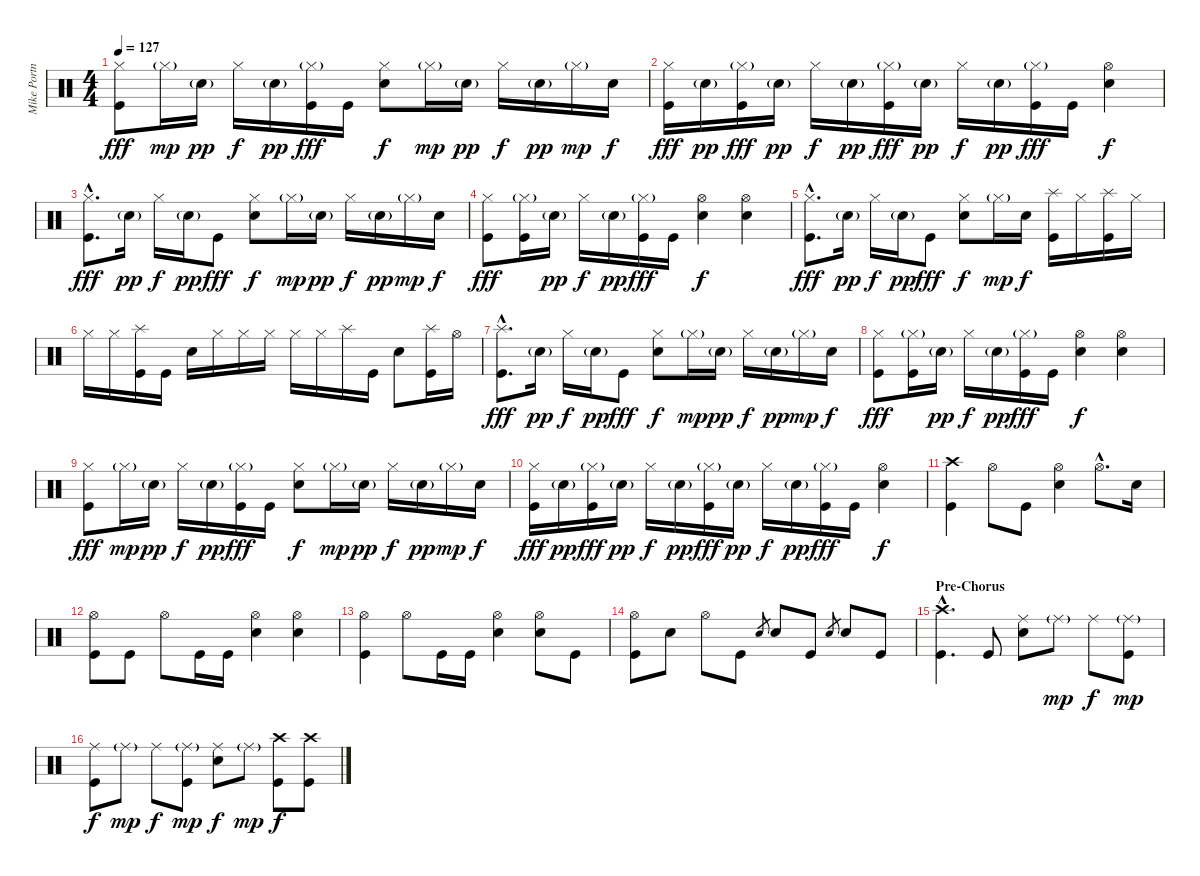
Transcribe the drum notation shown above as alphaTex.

\track ("Mike Portnoy" "Mike Portn") {instrument percussion}
\staff {score}
\articulation defaults
\ts (4 4)
\tempo 127
\clef neutral
\ks c
("Hi-Hat (closed)" "Kick (hit)").8{dy fff} "Hi-Hat (closed)"{g}.16{dy mp} "Electric Snare (hit)"{g}.16{dy pp} "Hi-Hat (closed)".16{dy f} "Electric Snare (hit)"{g}.16{dy pp} ("Hi-Hat (closed)"{g} "Kick (hit)").16{dy fff} "Kick (hit)".16 ("Hi-Hat (closed)" "Electric Snare (hit)").8{dy f} "Hi-Hat (closed)"{g}.16{dy mp} "Electric Snare (hit)"{g}.16{dy pp} "Hi-Hat (closed)".16{dy f} "Electric Snare (hit)"{g}.16{dy pp} "Hi-Hat (closed)"{g}.16{dy mp} "Electric Snare (hit)".16{dy f} |
("Hi-Hat (closed)" "Kick (hit)").16{dy fff} "Electric Snare (hit)"{g}.16{dy pp} ("Hi-Hat (closed)"{g} "Kick (hit)").16{dy fff} "Electric Snare (hit)"{g}.16{dy pp} "Hi-Hat (closed)".16{dy f} "Electric Snare (hit)"{g}.16{dy pp} ("Hi-Hat (closed)"{g} "Kick (hit)").16{dy fff} "Electric Snare (hit)"{g}.16{dy pp} "Hi-Hat (closed)".16{dy f} "Electric Snare (hit)"{g}.16{dy pp} ("Hi-Hat (closed)"{g} "Kick (hit)").16{dy fff} "Kick (hit)".16 ("Hi-Hat (open)" "Electric Snare (hit)").4{dy f} |
("Hi-Hat (closed)"{hac} "Kick (hit)"{hac}).8{d dy fff} "Electric Snare (hit)"{g}.16{dy pp} "Hi-Hat (closed)".16{dy f} "Electric Snare (hit)"{g}.16{dy pp} "Kick (hit)".8{dy fff} ("Hi-Hat (closed)" "Electric Snare (hit)").8{dy f} "Hi-Hat (closed)"{g}.16{dy mp} "Electric Snare (hit)"{g}.16{dy pp} "Hi-Hat (closed)".16{dy f} "Electric Snare (hit)"{g}.16{dy pp} "Hi-Hat (closed)"{g}.16{dy mp} "Electric Snare (hit)".16{dy f} |
("Hi-Hat (closed)" "Kick (hit)").8{dy fff} ("Hi-Hat (closed)"{g} "Kick (hit)").16 "Electric Snare (hit)"{g}.16{dy pp} "Hi-Hat (closed)".16{dy f} "Electric Snare (hit)"{g}.16{dy pp} ("Hi-Hat (closed)"{g} "Kick (hit)").16{dy fff} "Kick (hit)".16 ("Hi-Hat (open)" "Electric Snare (hit)").4{dy f} ("Hi-Hat (open)" "Electric Snare (hit)").4 |
("Hi-Hat (closed)"{hac} "Kick (hit)"{hac}).8{d dy fff} "Electric Snare (hit)"{g}.16{dy pp} "Hi-Hat (closed)".16{dy f} "Electric Snare (hit)"{g}.16{dy pp} "Kick (hit)".8{dy fff} ("Hi-Hat (closed)" "Electric Snare (hit)").8{dy f} "Hi-Hat (closed)"{g}.16{dy mp} "Electric Snare (hit)".16{dy f} ("Splash (hit)" "Kick (hit)").16 "Hi-Hat (closed)".16 ("Splash (hit)" "Kick (hit)").16 "Hi-Hat (closed)".16 |
"Hi-Hat (closed)".16 "Hi-Hat (closed)".16 ("Splash (hit)" "Kick (hit)").16 "Kick (hit)".16 "Electric Snare (hit)".16 "Hi-Hat (closed)".16 "Hi-Hat (closed)".16 "Hi-Hat (closed)".16 "Hi-Hat (closed)".16 "Hi-Hat (closed)".16 "Splash (hit)".16 "Kick (hit)".16 "Electric Snare (hit)".8 ("Splash (hit)" "Kick (hit)").16 "Hi-Hat (open)".16 |
("Splash (hit)"{hac} "Kick (hit)"{hac}).8{d dy fff} "Electric Snare (hit)"{g}.16{dy pp} "Hi-Hat (closed)".16{dy f} "Electric Snare (hit)"{g}.16{dy pp} "Kick (hit)".8{dy fff} ("Hi-Hat (closed)" "Electric Snare (hit)").8{dy f} "Hi-Hat (closed)"{g}.16{dy mp} "Electric Snare (hit)"{g}.16{dy pp} "Hi-Hat (closed)".16{dy f} "Electric Snare (hit)"{g}.16{dy pp} "Hi-Hat (closed)"{g}.16{dy mp} "Electric Snare (hit)".16{dy f} |
("Hi-Hat (closed)" "Kick (hit)").8{dy fff} ("Hi-Hat (closed)"{g} "Kick (hit)").16 "Electric Snare (hit)"{g}.16{dy pp} "Hi-Hat (closed)".16{dy f} "Electric Snare (hit)"{g}.16{dy pp} ("Hi-Hat (closed)"{g} "Kick (hit)").16{dy fff} "Kick (hit)".16 ("Hi-Hat (open)" "Electric Snare (hit)").4{dy f} ("Hi-Hat (open)" "Electric Snare (hit)").4 |
("Hi-Hat (closed)" "Kick (hit)").8{dy fff} "Hi-Hat (closed)"{g}.16{dy mp} "Electric Snare (hit)"{g}.16{dy pp} "Hi-Hat (closed)".16{dy f} "Electric Snare (hit)"{g}.16{dy pp} ("Hi-Hat (closed)"{g} "Kick (hit)").16{dy fff} "Kick (hit)".16 ("Hi-Hat (closed)" "Electric Snare (hit)").8{dy f} "Hi-Hat (closed)"{g}.16{dy mp} "Electric Snare (hit)"{g}.16{dy pp} "Hi-Hat (closed)".16{dy f} "Electric Snare (hit)"{g}.16{dy pp} "Hi-Hat (closed)"{g}.16{dy mp} "Electric Snare (hit)".16{dy f} |
("Hi-Hat (closed)" "Kick (hit)").16{dy fff} "Electric Snare (hit)"{g}.16{dy pp} ("Hi-Hat (closed)"{g} "Kick (hit)").16{dy fff} "Electric Snare (hit)"{g}.16{dy pp} "Hi-Hat (closed)".16{dy f} "Electric Snare (hit)"{g}.16{dy pp} ("Hi-Hat (closed)"{g} "Kick (hit)").16{dy fff} "Electric Snare (hit)"{g}.16{dy pp} "Hi-Hat (closed)".16{dy f} "Electric Snare (hit)"{g}.16{dy pp} ("Hi-Hat (closed)"{g} "Kick (hit)").16{dy fff} "Kick (hit)".16 ("Hi-Hat (open)" "Electric Snare (hit)").4{dy f} |
("Crash high (hit)" "Kick (hit)").4 "Hi-Hat (open)".8 "Kick (hit)".8 ("Hi-Hat (open)" "Electric Snare (hit)").4 "Hi-Hat (open)"{hac}.8{d} "Electric Snare (hit)".16 |
("Hi-Hat (open)" "Kick (hit)").8 "Kick (hit)".8 "Hi-Hat (open)".8 "Kick (hit)".16 "Kick (hit)".16 ("Hi-Hat (open)" "Electric Snare (hit)").4 ("Hi-Hat (open)" "Electric Snare (hit)").4 |
("Hi-Hat (open)" "Kick (hit)").4 "Hi-Hat (open)".8 "Kick (hit)".16 "Kick (hit)".16 ("Hi-Hat (open)" "Electric Snare (hit)").4 ("Hi-Hat (open)" "Electric Snare (hit)").8 "Kick (hit)".8 |
("Hi-Hat (open)" "Kick (hit)").8 "Electric Snare (hit)".8 "Hi-Hat (open)".8 "Kick (hit)".8 "Electric Snare (hit)".8{gr} "Electric Snare (hit)".8 "Kick (hit)".8 "Electric Snare (hit)".8{gr} "Electric Snare (hit)".8 "Kick (hit)".8 |
\section ("" "Pre-Chorus")
("Crash high (hit)"{hac} "Kick (hit)"{hac}).4{d} "Kick (hit)".8 ("Ride (middle)" "Electric Snare (hit)").8 "Ride (middle)"{g}.8{dy mp} "Ride (middle)".8{dy f} ("Ride (middle)"{g} "Kick (hit)").8{dy mp} |
("Ride (middle)" "Kick (hit)").8{dy f} "Ride (middle)"{g}.8{dy mp} "Ride (middle)".8{dy f} ("Ride (middle)"{g} "Kick (hit)").8{dy mp} ("Ride (middle)" "Electric Snare (hit)").8{dy f} "Ride (middle)"{g}.8{dy mp} ("Crash high (hit)" "Kick (hit)").8{dy f} ("Crash high (hit)" "Kick (hit)").8
